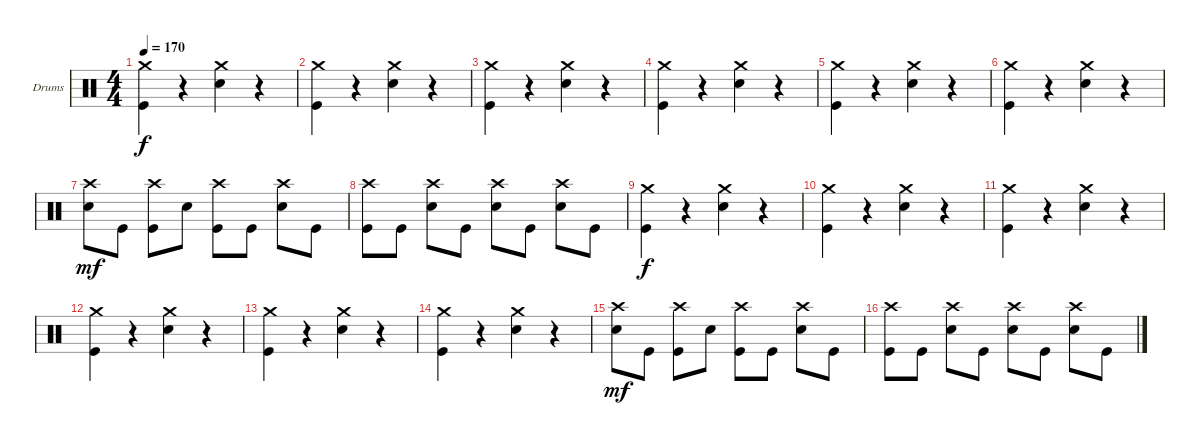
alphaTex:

\defaultSystemsLayout 4
\bracketExtendMode groupsimilarinstruments
\firstSystemTrackNameOrientation horizontal
\otherSystemsTrackNameOrientation horizontal
\track ("Drumkit" "Drums") {instrument percussion}
\staff {score}
\articulation defaults
\ts (4 4)
\tempo 170
\clef neutral
\scale
0.333333
\ks c
("Crash medium (hit)" "Kick (hit)").4{dy f} r.4 ("Crash medium (hit)" "Snare (hit) 2").4 r.4 |
\scale
0.333333 ("Crash medium (hit)" "Kick (hit)").4 r.4 ("Crash medium (hit)" "Snare (hit) 2").4 r.4 |
\scale
0.333333 ("Crash medium (hit)" "Kick (hit)").4 r.4 ("Crash medium (hit)" "Snare (hit) 2").4 r.4 |
\scale
0.333333 ("Crash medium (hit)" "Kick (hit)").4 r.4 ("Crash medium (hit)" "Snare (hit) 2").4 r.4 |
\scale
0.333333 ("Crash medium (hit)" "Kick (hit)").4 r.4 ("Crash medium (hit)" "Snare (hit) 2").4 r.4 |
\scale
0.333333 ("Crash medium (hit)" "Kick (hit)").4 r.4 ("Crash medium (hit)" "Snare (hit) 2").4 r.4 |
\scale
0.333333 ("Snare (hit) 2" "Crash high (hit)").8{dy mf} "Kick (hit)".8 ("Kick (hit)" "Crash high (hit)").8 "Snare (hit) 2".8 ("Kick (hit)" "Crash high (hit)").8 "Kick (hit)".8 ("Snare (hit) 2" "Crash high (hit)").8 "Kick (hit)".8 |
\scale
0.333333 ("Kick (hit)" "Crash high (hit)").8 "Kick (hit)".8 ("Snare (hit) 2" "Crash high (hit)").8 "Kick (hit)".8 ("Snare (hit) 2" "Crash high (hit)").8 "Kick (hit)".8 ("Snare (hit) 2" "Crash high (hit)").8 "Kick (hit)".8 |
\scale
0.333333 ("Crash medium (hit)" "Kick (hit)").4{dy f} r.4 ("Crash medium (hit)" "Snare (hit) 2").4 r.4 |
\scale
0.333333 ("Crash medium (hit)" "Kick (hit)").4 r.4 ("Crash medium (hit)" "Snare (hit) 2").4 r.4 |
\scale
0.333333 ("Crash medium (hit)" "Kick (hit)").4 r.4 ("Crash medium (hit)" "Snare (hit) 2").4 r.4 |
\scale
0.333333 ("Crash medium (hit)" "Kick (hit)").4 r.4 ("Crash medium (hit)" "Snare (hit) 2").4 r.4 |
\scale
0.333333 ("Crash medium (hit)" "Kick (hit)").4 r.4 ("Crash medium (hit)" "Snare (hit) 2").4 r.4 |
\scale
0.333333 ("Crash medium (hit)" "Kick (hit)").4 r.4 ("Crash medium (hit)" "Snare (hit) 2").4 r.4 |
\scale
0.333333 ("Snare (hit) 2" "Crash high (hit)").8{dy mf} "Kick (hit)".8 ("Kick (hit)" "Crash high (hit)").8 "Snare (hit) 2".8 ("Kick (hit)" "Crash high (hit)").8 "Kick (hit)".8 ("Snare (hit) 2" "Crash high (hit)").8 "Kick (hit)".8 |
\scale
0.333333 ("Kick (hit)" "Crash high (hit)").8 "Kick (hit)".8 ("Snare (hit) 2" "Crash high (hit)").8 "Kick (hit)".8 ("Snare (hit) 2" "Crash high (hit)").8 "Kick (hit)".8 ("Snare (hit) 2" "Crash high (hit)").8 "Kick (hit)".8
